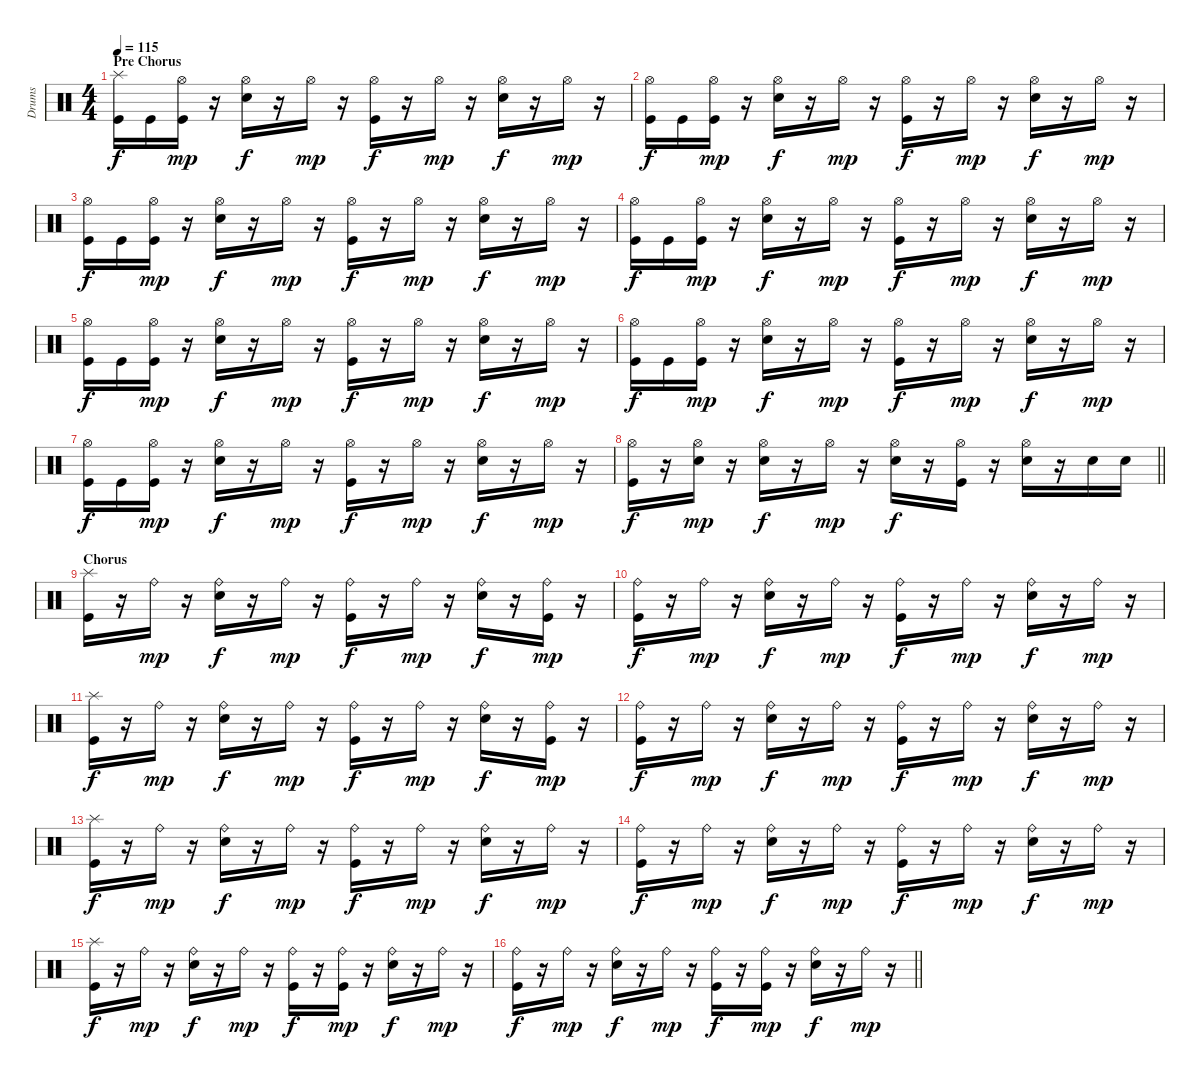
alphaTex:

\track ("Drums" "Drums") {instrument percussion}
\staff {score}
\articulation defaults
\ts (4 4)
\section ("" "Pre Chorus")
\tempo 115
\clef neutral
\ks c
("Splash (hit)" "Kick (hit)").16{dy f} "Kick (hit)".16 ("Kick (hit)" "Hi-Hat (open)").16{dy mp} r.16 ("Hi-Hat (open)" "Electric Snare (hit)").16{dy f} r.16 "Hi-Hat (open)".16{dy mp} r.16 ("Hi-Hat (open)" "Kick (hit)").16{dy f} r.16 "Hi-Hat (open)".16{dy mp} r.16 ("Hi-Hat (open)" "Electric Snare (hit)").16{dy f} r.16 "Hi-Hat (open)".16{dy mp} r.16 |
("Hi-Hat (open)" "Kick (hit)").16{dy f} "Kick (hit)".16 ("Kick (hit)" "Hi-Hat (open)").16{dy mp} r.16 ("Hi-Hat (open)" "Electric Snare (hit)").16{dy f} r.16 "Hi-Hat (open)".16{dy mp} r.16 ("Hi-Hat (open)" "Kick (hit)").16{dy f} r.16 "Hi-Hat (open)".16{dy mp} r.16 ("Hi-Hat (open)" "Electric Snare (hit)").16{dy f} r.16 "Hi-Hat (open)".16{dy mp} r.16 |
("Hi-Hat (open)" "Kick (hit)").16{dy f} "Kick (hit)".16 ("Kick (hit)" "Hi-Hat (open)").16{dy mp} r.16 ("Hi-Hat (open)" "Electric Snare (hit)").16{dy f} r.16 "Hi-Hat (open)".16{dy mp} r.16 ("Hi-Hat (open)" "Kick (hit)").16{dy f} r.16 "Hi-Hat (open)".16{dy mp} r.16 ("Hi-Hat (open)" "Electric Snare (hit)").16{dy f} r.16 "Hi-Hat (open)".16{dy mp} r.16 |
("Hi-Hat (open)" "Kick (hit)").16{dy f} "Kick (hit)".16 ("Kick (hit)" "Hi-Hat (open)").16{dy mp} r.16 ("Hi-Hat (open)" "Electric Snare (hit)").16{dy f} r.16 "Hi-Hat (open)".16{dy mp} r.16 ("Hi-Hat (open)" "Kick (hit)").16{dy f} r.16 "Hi-Hat (open)".16{dy mp} r.16 ("Hi-Hat (open)" "Electric Snare (hit)").16{dy f} r.16 "Hi-Hat (open)".16{dy mp} r.16 |
("Hi-Hat (open)" "Kick (hit)").16{dy f} "Kick (hit)".16 ("Kick (hit)" "Hi-Hat (open)").16{dy mp} r.16 ("Hi-Hat (open)" "Electric Snare (hit)").16{dy f} r.16 "Hi-Hat (open)".16{dy mp} r.16 ("Hi-Hat (open)" "Kick (hit)").16{dy f} r.16 "Hi-Hat (open)".16{dy mp} r.16 ("Hi-Hat (open)" "Electric Snare (hit)").16{dy f} r.16 "Hi-Hat (open)".16{dy mp} r.16 |
("Hi-Hat (open)" "Kick (hit)").16{dy f} "Kick (hit)".16 ("Kick (hit)" "Hi-Hat (open)").16{dy mp} r.16 ("Hi-Hat (open)" "Electric Snare (hit)").16{dy f} r.16 "Hi-Hat (open)".16{dy mp} r.16 ("Hi-Hat (open)" "Kick (hit)").16{dy f} r.16 "Hi-Hat (open)".16{dy mp} r.16 ("Hi-Hat (open)" "Electric Snare (hit)").16{dy f} r.16 "Hi-Hat (open)".16{dy mp} r.16 |
("Hi-Hat (open)" "Kick (hit)").16{dy f} "Kick (hit)".16 ("Kick (hit)" "Hi-Hat (open)").16{dy mp} r.16 ("Hi-Hat (open)" "Electric Snare (hit)").16{dy f} r.16 "Hi-Hat (open)".16{dy mp} r.16 ("Hi-Hat (open)" "Kick (hit)").16{dy f} r.16 "Hi-Hat (open)".16{dy mp} r.16 ("Hi-Hat (open)" "Electric Snare (hit)").16{dy f} r.16 "Hi-Hat (open)".16{dy mp} r.16 |
\barLineRight lightlight
("Hi-Hat (open)" "Kick (hit)").16{dy f} r.16 ("Electric Snare (hit)" "Hi-Hat (open)").16{dy mp} r.16 ("Hi-Hat (open)" "Electric Snare (hit)").16{dy f} r.16 "Hi-Hat (open)".16{dy mp} r.16 ("Electric Snare (hit)" "Hi-Hat (open)").16{dy f} r.16 ("Hi-Hat (open)" "Kick (hit)").16 r.16 ("Hi-Hat (open)" "Electric Snare (hit)").16 r.16 "Electric Snare (hit)".16 "Electric Snare (hit)".16 |
\section ("" "Chorus")
("Splash (hit)" "Kick (hit)").16 r.16 "Ride (bell)".16{dy mp} r.16 ("Ride (bell)" "Electric Snare (hit)").16{dy f} r.16 "Ride (bell)".16{dy mp} r.16 ("Ride (bell)" "Kick (hit)").16{dy f} r.16 "Ride (bell)".16{dy mp} r.16 ("Ride (bell)" "Electric Snare (hit)").16{dy f} r.16 ("Ride (bell)" "Kick (hit)").16{dy mp} r.16 |
("Ride (bell)" "Kick (hit)").16{dy f} r.16 "Ride (bell)".16{dy mp} r.16 ("Ride (bell)" "Electric Snare (hit)").16{dy f} r.16 "Ride (bell)".16{dy mp} r.16 ("Ride (bell)" "Kick (hit)").16{dy f} r.16 "Ride (bell)".16{dy mp} r.16 ("Ride (bell)" "Electric Snare (hit)").16{dy f} r.16 "Ride (bell)".16{dy mp} r.16 |
("Splash (hit)" "Kick (hit)").16{dy f} r.16 "Ride (bell)".16{dy mp} r.16 ("Ride (bell)" "Electric Snare (hit)").16{dy f} r.16 "Ride (bell)".16{dy mp} r.16 ("Ride (bell)" "Kick (hit)").16{dy f} r.16 "Ride (bell)".16{dy mp} r.16 ("Ride (bell)" "Electric Snare (hit)").16{dy f} r.16 ("Ride (bell)" "Kick (hit)").16{dy mp} r.16 |
("Ride (bell)" "Kick (hit)").16{dy f} r.16 "Ride (bell)".16{dy mp} r.16 ("Ride (bell)" "Electric Snare (hit)").16{dy f} r.16 "Ride (bell)".16{dy mp} r.16 ("Ride (bell)" "Kick (hit)").16{dy f} r.16 "Ride (bell)".16{dy mp} r.16 ("Ride (bell)" "Electric Snare (hit)").16{dy f} r.16 "Ride (bell)".16{dy mp} r.16 |
("Splash (hit)" "Kick (hit)").16{dy f} r.16 "Ride (bell)".16{dy mp} r.16 ("Ride (bell)" "Electric Snare (hit)").16{dy f} r.16 "Ride (bell)".16{dy mp} r.16 ("Ride (bell)" "Kick (hit)").16{dy f} r.16 "Ride (bell)".16{dy mp} r.16 ("Ride (bell)" "Electric Snare (hit)").16{dy f} r.16 "Ride (bell)".16{dy mp} r.16 |
("Ride (bell)" "Kick (hit)").16{dy f} r.16 "Ride (bell)".16{dy mp} r.16 ("Ride (bell)" "Electric Snare (hit)").16{dy f} r.16 "Ride (bell)".16{dy mp} r.16 ("Ride (bell)" "Kick (hit)").16{dy f} r.16 "Ride (bell)".16{dy mp} r.16 ("Ride (bell)" "Electric Snare (hit)").16{dy f} r.16 "Ride (bell)".16{dy mp} r.16 |
("Splash (hit)" "Kick (hit)").16{dy f} r.16 "Ride (bell)".16{dy mp} r.16 ("Ride (bell)" "Electric Snare (hit)").16{dy f} r.16 "Ride (bell)".16{dy mp} r.16 ("Ride (bell)" "Kick (hit)").16{dy f} r.16 ("Ride (bell)" "Kick (hit)").16{dy mp} r.16 ("Ride (bell)" "Electric Snare (hit)").16{dy f} r.16 "Ride (bell)".16{dy mp} r.16 |
\barLineRight lightlight
("Ride (bell)" "Kick (hit)").16{dy f} r.16 "Ride (bell)".16{dy mp} r.16 ("Ride (bell)" "Electric Snare (hit)").16{dy f} r.16 "Ride (bell)".16{dy mp} r.16 ("Ride (bell)" "Kick (hit)").16{dy f} r.16 ("Ride (bell)" "Kick (hit)").16{dy mp} r.16 ("Ride (bell)" "Electric Snare (hit)").16{dy f} r.16 "Ride (bell)".16{dy mp} r.16
